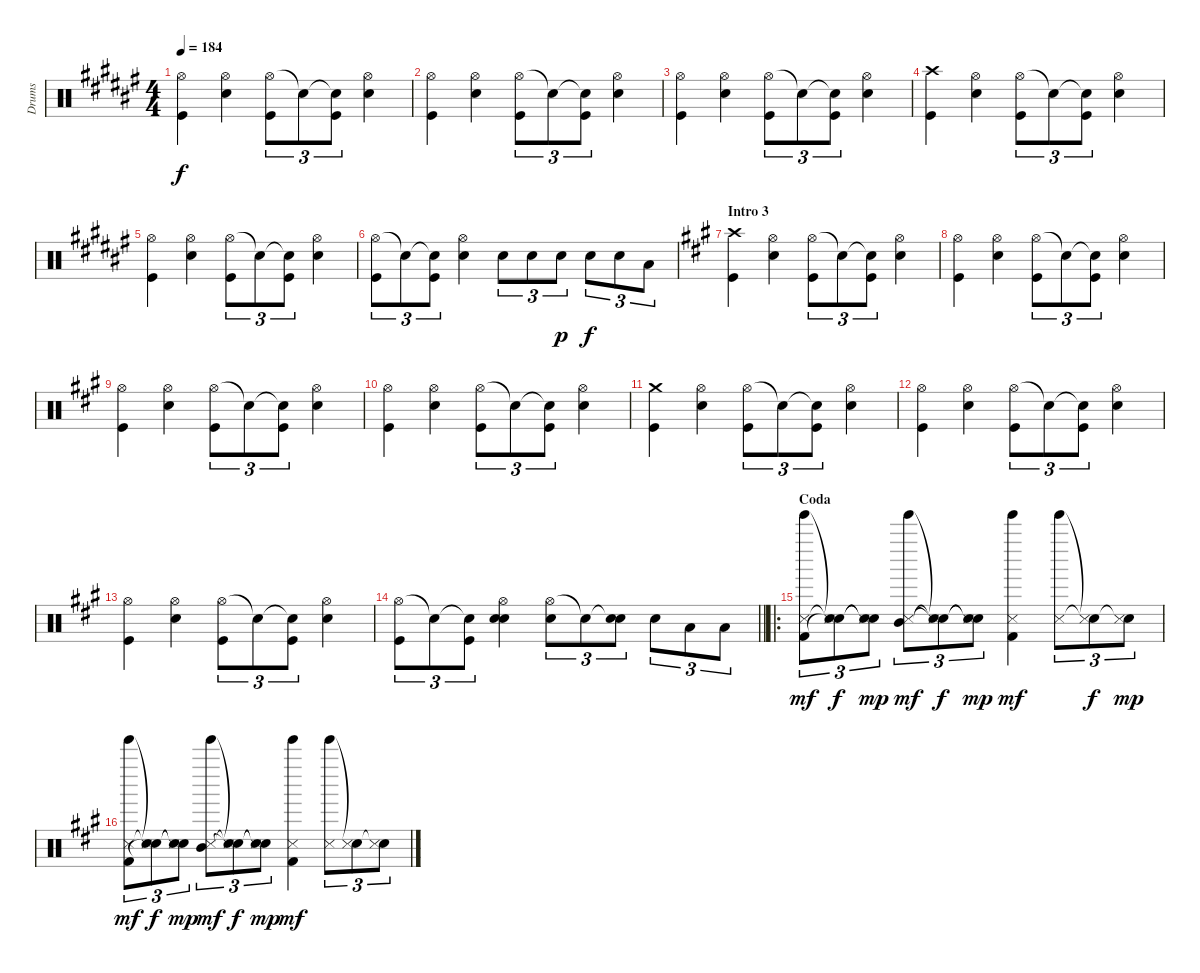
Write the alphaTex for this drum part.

\track ("Drums" "Drums") {instrument percussion}
\staff {score}
\articulation defaults
\ts (4 4)
\tempo 184
\clef neutral
\ks f#
("Hi-Hat (open)" "Kick (hit)").4{dy f} ("Hi-Hat (open)" "Electric Snare (hit)").4 ("Hi-Hat (open)" "Kick (hit)").8{tu (3 2)} "Snare (hit)"{t}.8{tu (3 2)} ("Snare (hit)"{t} "Kick (hit)").8{tu (3 2)} ("Hi-Hat (open)" "Electric Snare (hit)").4 |
("Hi-Hat (open)" "Kick (hit)").4 ("Hi-Hat (open)" "Electric Snare (hit)").4 ("Hi-Hat (open)" "Kick (hit)").8{tu (3 2)} "Snare (hit)"{t}.8{tu (3 2)} ("Snare (hit)"{t} "Kick (hit)").8{tu (3 2)} ("Hi-Hat (open)" "Electric Snare (hit)").4 |
("Hi-Hat (open)" "Kick (hit)").4 ("Hi-Hat (open)" "Electric Snare (hit)").4 ("Hi-Hat (open)" "Kick (hit)").8{tu (3 2)} "Snare (hit)"{t}.8{tu (3 2)} ("Snare (hit)"{t} "Kick (hit)").8{tu (3 2)} ("Hi-Hat (open)" "Electric Snare (hit)").4 |
("Crash high (hit)" "Kick (hit)").4 ("Hi-Hat (open)" "Electric Snare (hit)").4 ("Hi-Hat (open)" "Kick (hit)").8{tu (3 2)} "Snare (hit)"{t}.8{tu (3 2)} ("Snare (hit)"{t} "Kick (hit)").8{tu (3 2)} ("Hi-Hat (open)" "Electric Snare (hit)").4 |
("Hi-Hat (open)" "Kick (hit)").4 ("Hi-Hat (open)" "Electric Snare (hit)").4 ("Hi-Hat (open)" "Kick (hit)").8{tu (3 2)} "Snare (hit)"{t}.8{tu (3 2)} ("Snare (hit)"{t} "Kick (hit)").8{tu (3 2)} ("Hi-Hat (open)" "Electric Snare (hit)").4 |
("Hi-Hat (open)" "Kick (hit)").8{tu (3 2)} "Snare (hit)"{t}.8{tu (3 2)} ("Snare (hit)"{t} "Kick (hit)").8{tu (3 2)} ("Hi-Hat (open)" "Electric Snare (hit)").4 "Electric Snare (hit)".8{tu (3 2)} "Electric Snare (hit)".8{tu (3 2)} "Electric Snare (hit)".8{tu (3 2) dy p} "Electric Snare (hit)".8{tu (3 2) dy f} "Electric Snare (hit)".8{tu (3 2)} "Low Tom (hit)".8{tu (3 2)} |
\section ("" "Intro 3")
\ks f#minor
("Crash high (hit)" "Kick (hit)").4 ("Hi-Hat (open)" "Electric Snare (hit)").4 ("Hi-Hat (open)" "Kick (hit)").8{tu (3 2)} "Snare (hit)"{t}.8{tu (3 2)} ("Snare (hit)"{t} "Kick (hit)").8{tu (3 2)} ("Hi-Hat (open)" "Electric Snare (hit)").4 |
("Hi-Hat (open)" "Kick (hit)").4 ("Hi-Hat (open)" "Electric Snare (hit)").4 ("Hi-Hat (open)" "Kick (hit)").8{tu (3 2)} "Snare (hit)"{t}.8{tu (3 2)} ("Snare (hit)"{t} "Kick (hit)").8{tu (3 2)} ("Hi-Hat (open)" "Electric Snare (hit)").4 |
("Hi-Hat (open)" "Kick (hit)").4 ("Hi-Hat (open)" "Electric Snare (hit)").4 ("Hi-Hat (open)" "Kick (hit)").8{tu (3 2)} "Snare (hit)"{t}.8{tu (3 2)} ("Snare (hit)"{t} "Kick (hit)").8{tu (3 2)} ("Hi-Hat (open)" "Electric Snare (hit)").4 |
("Hi-Hat (open)" "Kick (hit)").4 ("Hi-Hat (open)" "Electric Snare (hit)").4 ("Hi-Hat (open)" "Kick (hit)").8{tu (3 2)} "Snare (hit)"{t}.8{tu (3 2)} ("Snare (hit)"{t} "Kick (hit)").8{tu (3 2)} ("Hi-Hat (open)" "Electric Snare (hit)").4 |
("Crash medium (hit)" "Kick (hit)").4 ("Hi-Hat (open)" "Electric Snare (hit)").4 ("Hi-Hat (open)" "Kick (hit)").8{tu (3 2)} "Snare (hit)"{t}.8{tu (3 2)} ("Snare (hit)"{t} "Kick (hit)").8{tu (3 2)} ("Hi-Hat (open)" "Electric Snare (hit)").4 |
("Hi-Hat (open)" "Kick (hit)").4 ("Hi-Hat (open)" "Electric Snare (hit)").4 ("Hi-Hat (open)" "Kick (hit)").8{tu (3 2)} "Snare (hit)"{t}.8{tu (3 2)} ("Snare (hit)"{t} "Kick (hit)").8{tu (3 2)} ("Hi-Hat (open)" "Electric Snare (hit)").4 |
("Hi-Hat (open)" "Kick (hit)").4 ("Hi-Hat (open)" "Electric Snare (hit)").4 ("Hi-Hat (open)" "Kick (hit)").8{tu (3 2)} "Snare (hit)"{t}.8{tu (3 2)} ("Snare (hit)"{t} "Kick (hit)").8{tu (3 2)} ("Hi-Hat (open)" "Electric Snare (hit)").4 |
\barLineRight lightlight
("Hi-Hat (open)" "Kick (hit)").8{tu (3 2)} "Snare (hit)"{t}.8{tu (3 2)} ("Snare (hit)"{t} "Kick (hit)").8{tu (3 2)} ("Hi-Hat (open)" "Electric Snare (hit)" "Snare (hit)").4 ("Hi-Hat (open)" "Electric Snare (hit)").8{tu (3 2)} "Snare (hit)"{t}.8{tu (3 2)} ("Snare (hit)"{t} "Electric Snare (hit)").8{tu (3 2)} "Electric Snare (hit)".8{tu (3 2)} "Low Tom (hit)".8{tu (3 2)} "Low Tom (hit)".8{tu (3 2)} |
\ro
\section ("" "Coda")
("Tinkle Bell (hit)" "Metronome (hit)" "Kick (hit) 2").8{tu (3 2) dy mf} ("Snare (hit)"{t} "Metronome (hit)"{t} "Snare (hit)"{t}).8{tu (3 2) dy f} ("Snare (hit)"{t} "Metronome (hit)" "Snare (hit)"{t}).8{tu (3 2) dy mp} ("Tinkle Bell (hit)" "Metronome (hit)" "Mid Tom (hit)").8{tu (3 2) dy mf} ("Snare (hit)"{t} "Metronome (hit)"{t} "Snare (hit)"{t}).8{tu (3 2) dy f} ("Snare (hit)"{t} "Metronome (hit)" "Snare (hit)"{t}).8{tu (3 2) dy mp} ("Tinkle Bell (hit)" "Metronome (hit)" "Kick (hit) 2").4{dy mf} ("Tinkle Bell (hit)" "Metronome (hit)").8{tu (3 2)} ("Snare (hit)"{t} "Metronome (hit)"{t}).8{tu (3 2) dy f} ("Snare (hit)"{t} "Metronome (hit)").8{tu (3 2) dy mp} |
("Tinkle Bell (hit)" "Metronome (hit)" "Kick (hit) 2").8{tu (3 2) dy mf} ("Snare (hit)"{t} "Metronome (hit)"{t} "Snare (hit)"{t}).8{tu (3 2) dy f} ("Snare (hit)"{t} "Metronome (hit)" "Snare (hit)"{t}).8{tu (3 2) dy mp} ("Tinkle Bell (hit)" "Metronome (hit)" "Mid Tom (hit)").8{tu (3 2) dy mf} ("Snare (hit)"{t} "Metronome (hit)"{t} "Snare (hit)"{t}).8{tu (3 2) dy f} ("Snare (hit)"{t} "Metronome (hit)" "Snare (hit)"{t}).8{tu (3 2) dy mp} ("Tinkle Bell (hit)" "Metronome (hit)" "Kick (hit) 2").4{dy mf} ("Tinkle Bell (hit)" "Metronome (hit)").8{tu (3 2)} ("Snare (hit)"{t} "Metronome (hit)").8{tu (3 2)} ("Snare (hit)"{t} "Metronome (hit)").8{tu (3 2)}
